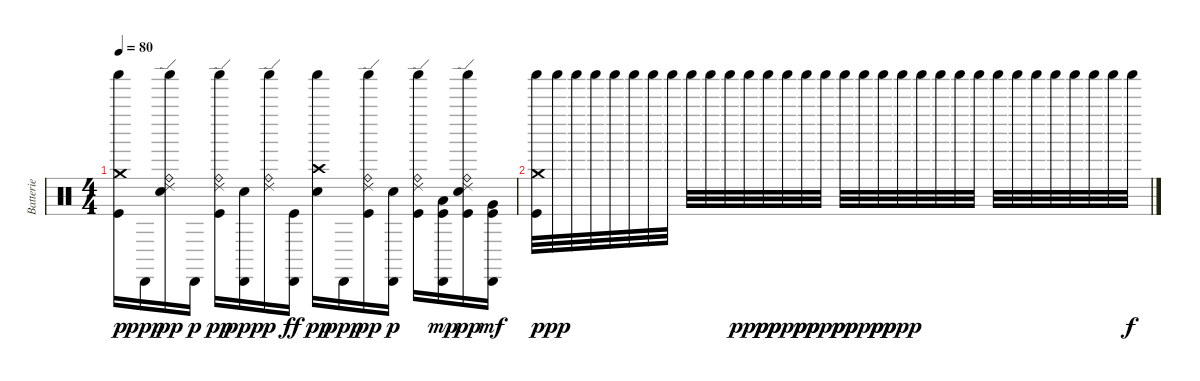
\track ("Batterie" "Batterie") {instrument percussion}
\staff {score}
\articulation defaults
\ts (4 4)
\tempo 80
\clef neutral
\ks c
("Kick (hit)" "Crash medium (hit)" "Shaker (hit)").16{dy p} "Cabasa (hit)".16{dy ppp} ("Snare (hit) 2" "Ride (edge) 2" "Ride (bell)" "Shaker (hit)").16{dy pp} "Cabasa (hit)".16{dy p} ("Kick (hit)" "Ride (edge) 2" "Ride (bell)" "Shaker (hit)").16{dy pp} ("Cabasa (hit)" "Snare (hit) 2").16{dy ppp} ("Ride (edge) 2" "Ride (bell)" "Shaker (hit)").16{dy p} ("Cabasa (hit)" "Kick (hit)").16{dy ff} ("Snare (hit) 2" "Crash high (hit)" "Shaker (hit)").16{dy pp} "Cabasa (hit)".16{dy ppp} ("Kick (hit)" "Ride (edge) 2" "Ride (bell)" "Shaker (hit)").16{dy pp} ("Cabasa (hit)" "Snare (hit) 2").16{dy p} ("Kick (hit)" "Ride (edge) 2" "Ride (bell)" "Shaker (hit)").16 ("Cabasa (hit)" "Kick (hit)" "Low Tom (hit)").16{dy mp} ("Kick (hit)" "Snare (hit) 2" "Ride (edge) 2" "Ride (bell)" "Shaker (hit)").16{dy pp} ("Cabasa (hit)" "Kick (hit)" "Very Low Tom (hit)").16{dy mf} |
("Kick (hit)" "Crash medium (hit)" "Shaker (hit)").32{dy p} "Shaker (hit)".32{dy pp} "Shaker (hit)".32 "Shaker (hit)".32 "Shaker (hit)".32 "Shaker (hit)".32 "Shaker (hit)".32 "Shaker (hit)".32 "Shaker (hit)".32 "Shaker (hit)".32 "Shaker (hit)".32 "Shaker (hit)".32{dy ppp} "Shaker (hit)".32{dy pp} "Shaker (hit)".32{dy ppp} "Shaker (hit)".32{dy pp} "Shaker (hit)".32{dy ppp} "Shaker (hit)".32{dy pp} "Shaker (hit)".32{dy ppp} "Shaker (hit)".32{dy pp} "Shaker (hit)".32{dy ppp} "Shaker (hit)".32 "Shaker (hit)".32 "Shaker (hit)".32 "Shaker (hit)".32 "Shaker (hit)".32 "Shaker (hit)".32 "Shaker (hit)".32 "Shaker (hit)".32 "Shaker (hit)".32 "Shaker (hit)".32 "Shaker (hit)".32 "Shaker (hit)".32{dy f}
